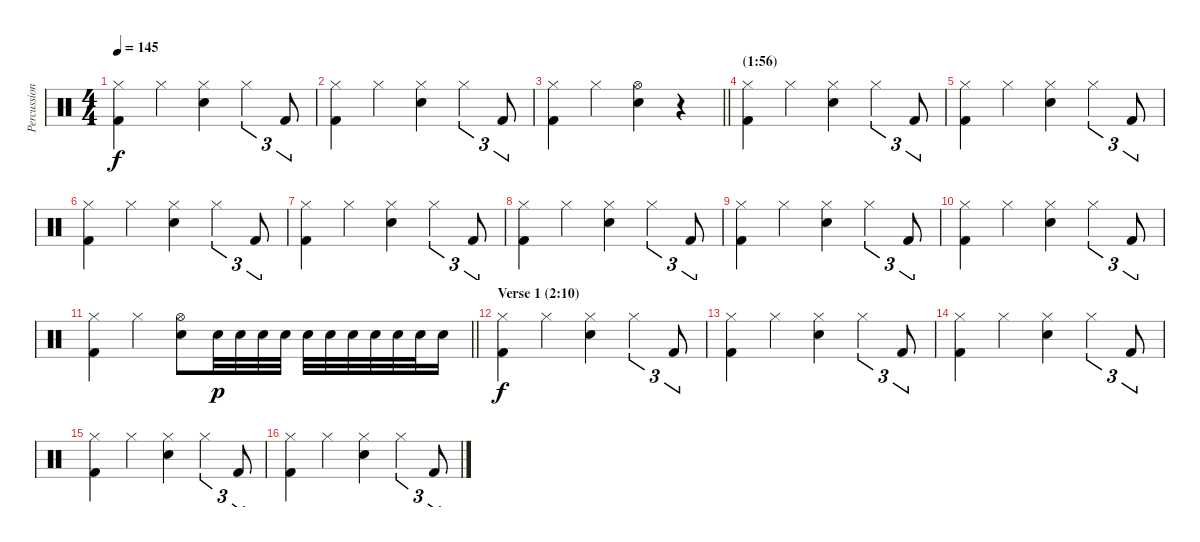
\track ("Percussion" "Percussion") {instrument percussion}
\staff {score}
\articulation defaults
\ts (4 4)
\tempo 145
\clef neutral
\ks c
("Hi-Hat (closed)" "Kick (hit) 2").4{dy f} "Hi-Hat (closed)".4 ("Hi-Hat (closed)" "Electric Snare (hit)").4 "Hi-Hat (closed)".4{tu (3 2)} "Kick (hit) 2".8{tu (3 2)} |
("Hi-Hat (closed)" "Kick (hit) 2").4 "Hi-Hat (closed)".4 ("Hi-Hat (closed)" "Electric Snare (hit)").4 "Hi-Hat (closed)".4{tu (3 2)} "Kick (hit) 2".8{tu (3 2)} |
\barLineRight lightlight
("Hi-Hat (closed)" "Kick (hit) 2").4 "Hi-Hat (closed)".4 ("Hi-Hat (open)" "Electric Snare (hit)").4 r.4 |
\section ("" "(1:56)")
("Hi-Hat (closed)" "Kick (hit) 2").4 "Hi-Hat (closed)".4 ("Hi-Hat (closed)" "Electric Snare (hit)").4 "Hi-Hat (closed)".4{tu (3 2)} "Kick (hit) 2".8{tu (3 2)} |
("Hi-Hat (closed)" "Kick (hit) 2").4 "Hi-Hat (closed)".4 ("Hi-Hat (closed)" "Electric Snare (hit)").4 "Hi-Hat (closed)".4{tu (3 2)} "Kick (hit) 2".8{tu (3 2)} |
("Hi-Hat (closed)" "Kick (hit) 2").4 "Hi-Hat (closed)".4 ("Hi-Hat (closed)" "Electric Snare (hit)").4 "Hi-Hat (closed)".4{tu (3 2)} "Kick (hit) 2".8{tu (3 2)} |
("Hi-Hat (closed)" "Kick (hit) 2").4 "Hi-Hat (closed)".4 ("Hi-Hat (closed)" "Electric Snare (hit)").4 "Hi-Hat (closed)".4{tu (3 2)} "Kick (hit) 2".8{tu (3 2)} |
("Hi-Hat (closed)" "Kick (hit) 2").4 "Hi-Hat (closed)".4 ("Hi-Hat (closed)" "Electric Snare (hit)").4 "Hi-Hat (closed)".4{tu (3 2)} "Kick (hit) 2".8{tu (3 2)} |
("Hi-Hat (closed)" "Kick (hit) 2").4 "Hi-Hat (closed)".4 ("Hi-Hat (closed)" "Electric Snare (hit)").4 "Hi-Hat (closed)".4{tu (3 2)} "Kick (hit) 2".8{tu (3 2)} |
("Hi-Hat (closed)" "Kick (hit) 2").4 "Hi-Hat (closed)".4 ("Hi-Hat (closed)" "Electric Snare (hit)").4 "Hi-Hat (closed)".4{tu (3 2)} "Kick (hit) 2".8{tu (3 2)} |
\barLineRight lightlight
("Hi-Hat (closed)" "Kick (hit) 2").4 "Hi-Hat (closed)".4 ("Hi-Hat (open)" "Electric Snare (hit)").8 "Electric Snare (hit)".32{dy p} "Electric Snare (hit)".32 "Electric Snare (hit)".32 "Electric Snare (hit)".32 "Electric Snare (hit)".32 "Electric Snare (hit)".32 "Electric Snare (hit)".32 "Electric Snare (hit)".32 "Electric Snare (hit)".32 "Electric Snare (hit)".32 "Electric Snare (hit)".16 |
\section ("" "Verse 1 (2:10)")
("Hi-Hat (closed)" "Kick (hit) 2").4{dy f} "Hi-Hat (closed)".4 ("Hi-Hat (closed)" "Electric Snare (hit)").4 "Hi-Hat (closed)".4{tu (3 2)} "Kick (hit) 2".8{tu (3 2)} |
("Hi-Hat (closed)" "Kick (hit) 2").4 "Hi-Hat (closed)".4 ("Hi-Hat (closed)" "Electric Snare (hit)").4 "Hi-Hat (closed)".4{tu (3 2)} "Kick (hit) 2".8{tu (3 2)} |
("Hi-Hat (closed)" "Kick (hit) 2").4 "Hi-Hat (closed)".4 ("Hi-Hat (closed)" "Electric Snare (hit)").4 "Hi-Hat (closed)".4{tu (3 2)} "Kick (hit) 2".8{tu (3 2)} |
("Hi-Hat (closed)" "Kick (hit) 2").4 "Hi-Hat (closed)".4 ("Hi-Hat (closed)" "Electric Snare (hit)").4 "Hi-Hat (closed)".4{tu (3 2)} "Kick (hit) 2".8{tu (3 2)} |
("Hi-Hat (closed)" "Kick (hit) 2").4 "Hi-Hat (closed)".4 ("Hi-Hat (closed)" "Electric Snare (hit)").4 "Hi-Hat (closed)".4{tu (3 2)} "Kick (hit) 2".8{tu (3 2)}
